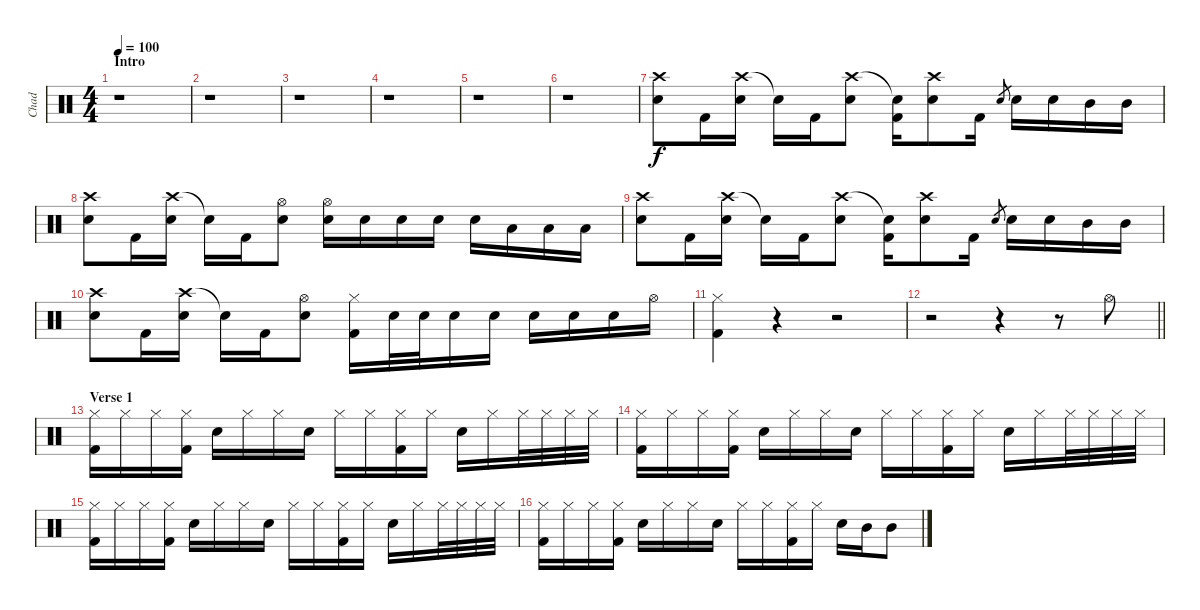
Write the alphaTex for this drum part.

\track ("Chad" "Chad") {instrument percussion}
\staff {score}
\articulation defaults
\ts (4 4)
\section ("" "Intro")
\tempo 100
\clef neutral
\ks c
r.1{dy f} |
r.1 |
r.1 |
r.1 |
r.1 |
r.1 |
("Crash high (hit)" "Electric Snare (hit)").8 "Kick (hit) 2".16 ("Crash high (hit)" "Electric Snare (hit)").16 "Snare (hit)"{t}.16 "Kick (hit) 2".16 ("Crash high (hit)" "Electric Snare (hit)").8 ("Snare (hit)"{t} "Kick (hit) 2").16 ("Crash high (hit)" "Electric Snare (hit)").8 "Kick (hit) 2".16 "Electric Snare (hit)".8{gr} "Electric Snare (hit)".16 "Electric Snare (hit)".16 "Mid Tom (hit)".16 "Mid Tom (hit)".16 |
("Crash high (hit)" "Electric Snare (hit)").8 "Kick (hit) 2".16 ("Crash high (hit)" "Electric Snare (hit)").16 "Snare (hit)"{t}.16 "Kick (hit) 2".16 ("Hi-Hat (open)" "Electric Snare (hit)").8 ("Hi-Hat (open)" "Electric Snare (hit)").16 "Electric Snare (hit)".16 "Electric Snare (hit)".16 "Electric Snare (hit)".16 "Electric Snare (hit)".16 "Low Tom (hit)".16 "Low Tom (hit)".16 "Low Tom (hit)".16 |
("Crash high (hit)" "Electric Snare (hit)").8 "Kick (hit) 2".16 ("Crash high (hit)" "Electric Snare (hit)").16 "Snare (hit)"{t}.16 "Kick (hit) 2".16 ("Crash high (hit)" "Electric Snare (hit)").8 ("Snare (hit)"{t} "Kick (hit) 2").16 ("Crash high (hit)" "Electric Snare (hit)").8 "Kick (hit) 2".16 "Electric Snare (hit)".8{gr} "Electric Snare (hit)".16 "Electric Snare (hit)".16 "Mid Tom (hit)".16 "Mid Tom (hit)".16 |
("Crash high (hit)" "Electric Snare (hit)").8 "Kick (hit) 2".16 ("Crash high (hit)" "Electric Snare (hit)").16 "Snare (hit)"{t}.16 "Kick (hit) 2".16 ("Hi-Hat (open)" "Electric Snare (hit)").8 ("Hi-Hat (closed)" "Kick (hit) 2").16 "Electric Snare (hit)".32 "Electric Snare (hit)".32 "Electric Snare (hit)".16 "Electric Snare (hit)".16 "Electric Snare (hit)".16 "Electric Snare (hit)".16 "Electric Snare (hit)".16 "Hi-Hat (open)".16 |
("Hi-Hat (closed)" "Kick (hit) 2").4 r.4 r.2 |
\barLineRight lightlight
r.2 r.4 r.8 "Hi-Hat (open)".8 |
\section ("" "Verse 1")
("Hi-Hat (closed)" "Kick (hit) 2").16 "Hi-Hat (closed)".16 "Hi-Hat (closed)".16 ("Hi-Hat (closed)" "Kick (hit) 2").16 "Electric Snare (hit)".16 "Hi-Hat (closed)".16 "Hi-Hat (closed)".16 "Electric Snare (hit)".16 "Hi-Hat (closed)".16 "Hi-Hat (closed)".16 ("Hi-Hat (closed)" "Kick (hit) 2").16 "Hi-Hat (closed)".16 "Electric Snare (hit)".16 "Hi-Hat (closed)".16 "Hi-Hat (closed)".32 "Hi-Hat (closed)".32 "Hi-Hat (closed)".32 "Hi-Hat (closed)".32 |
("Hi-Hat (closed)" "Kick (hit) 2").16 "Hi-Hat (closed)".16 "Hi-Hat (closed)".16 ("Hi-Hat (closed)" "Kick (hit) 2").16 "Electric Snare (hit)".16 "Hi-Hat (closed)".16 "Hi-Hat (closed)".16 "Electric Snare (hit)".16 "Hi-Hat (closed)".16 "Hi-Hat (closed)".16 ("Hi-Hat (closed)" "Kick (hit) 2").16 "Hi-Hat (closed)".16 "Electric Snare (hit)".16 "Hi-Hat (closed)".16 "Hi-Hat (closed)".32 "Hi-Hat (closed)".32 "Hi-Hat (closed)".32 "Hi-Hat (closed)".32 |
("Hi-Hat (closed)" "Kick (hit) 2").16 "Hi-Hat (closed)".16 "Hi-Hat (closed)".16 ("Hi-Hat (closed)" "Kick (hit) 2").16 "Electric Snare (hit)".16 "Hi-Hat (closed)".16 "Hi-Hat (closed)".16 "Electric Snare (hit)".16 "Hi-Hat (closed)".16 "Hi-Hat (closed)".16 ("Hi-Hat (closed)" "Kick (hit) 2").16 "Hi-Hat (closed)".16 "Electric Snare (hit)".16 "Hi-Hat (closed)".16 "Hi-Hat (closed)".32 "Hi-Hat (closed)".32 "Hi-Hat (closed)".32 "Hi-Hat (closed)".32 |
("Hi-Hat (closed)" "Kick (hit) 2").16 "Hi-Hat (closed)".16 "Hi-Hat (closed)".16 ("Hi-Hat (closed)" "Kick (hit) 2").16 "Electric Snare (hit)".16 "Hi-Hat (closed)".16 "Hi-Hat (closed)".16 "Electric Snare (hit)".16 "Hi-Hat (closed)".16 "Hi-Hat (closed)".16 ("Hi-Hat (closed)" "Kick (hit) 2").16 "Hi-Hat (closed)".16 "Electric Snare (hit)".16 "Mid Tom (hit)".16 "Mid Tom (hit)".8
